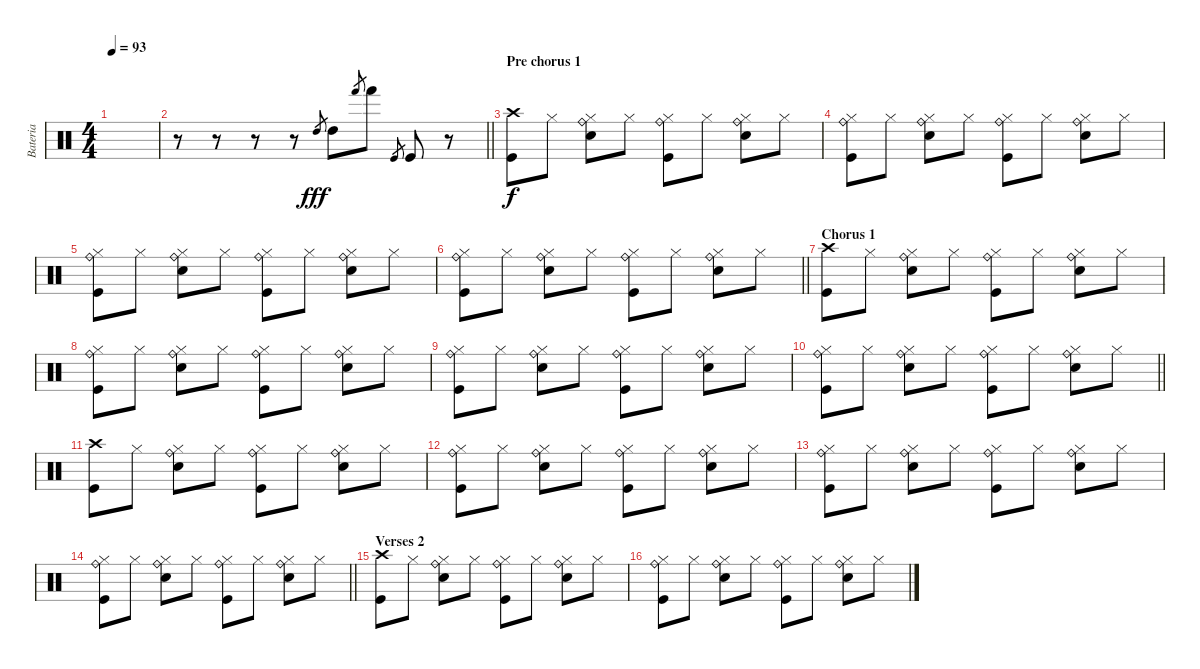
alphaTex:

\track ("Bateria" "Bateria") {instrument percussion}
\staff {score}
\articulation defaults
\ts (4 4)
\tempo 93
\clef neutral
\ks c
|
\barLineRight lightlight
r.8 r.8 r.8 r.8 "High Tom (hit)".8{gr dy fff} "High Tom (hit)".8 "Hand (hit)".8{gr} "Hand (hit)".8 "Kick (hit)".8{gr} "Kick (hit)".8 r.8 |
\section ("" "Pre chorus 1")
("Crash high (hit)" "Kick (hit)").8{dy f} "Hi-Hat (closed)".8 ("Hi-Hat (closed)" "Snare (hit) 2" "Ride (bell)").8 "Hi-Hat (closed)".8 ("Kick (hit)" "Hi-Hat (closed)" "Ride (bell)").8 "Hi-Hat (closed)".8 ("Hi-Hat (closed)" "Snare (hit) 2" "Ride (bell)").8 "Hi-Hat (closed)".8 |
("Hi-Hat (closed)" "Kick (hit)" "Ride (bell)").8 "Hi-Hat (closed)".8 ("Hi-Hat (closed)" "Snare (hit) 2" "Ride (bell)").8 "Hi-Hat (closed)".8 ("Kick (hit)" "Hi-Hat (closed)" "Ride (bell)").8 "Hi-Hat (closed)".8 ("Hi-Hat (closed)" "Snare (hit) 2" "Ride (bell)").8 "Hi-Hat (closed)".8 |
("Hi-Hat (closed)" "Kick (hit)" "Ride (bell)").8 "Hi-Hat (closed)".8 ("Hi-Hat (closed)" "Snare (hit) 2" "Ride (bell)").8 "Hi-Hat (closed)".8 ("Kick (hit)" "Hi-Hat (closed)" "Ride (bell)").8 "Hi-Hat (closed)".8 ("Hi-Hat (closed)" "Snare (hit) 2" "Ride (bell)").8 "Hi-Hat (closed)".8 |
\barLineRight lightlight
("Hi-Hat (closed)" "Kick (hit)" "Ride (bell)").8 "Hi-Hat (closed)".8 ("Hi-Hat (closed)" "Snare (hit) 2" "Ride (bell)").8 "Hi-Hat (closed)".8 ("Kick (hit)" "Hi-Hat (closed)" "Ride (bell)").8 "Hi-Hat (closed)".8 ("Hi-Hat (closed)" "Snare (hit) 2" "Ride (bell)").8 "Hi-Hat (closed)".8 |
\section ("" "Chorus 1")
("Crash high (hit)" "Kick (hit)").8 "Hi-Hat (closed)".8 ("Hi-Hat (closed)" "Snare (hit) 2" "Ride (bell)").8 "Hi-Hat (closed)".8 ("Kick (hit)" "Hi-Hat (closed)" "Ride (bell)").8 "Hi-Hat (closed)".8 ("Hi-Hat (closed)" "Snare (hit) 2" "Ride (bell)").8 "Hi-Hat (closed)".8 |
("Hi-Hat (closed)" "Kick (hit)" "Ride (bell)").8 "Hi-Hat (closed)".8 ("Hi-Hat (closed)" "Snare (hit) 2" "Ride (bell)").8 "Hi-Hat (closed)".8 ("Kick (hit)" "Hi-Hat (closed)" "Ride (bell)").8 "Hi-Hat (closed)".8 ("Hi-Hat (closed)" "Snare (hit) 2" "Ride (bell)").8 "Hi-Hat (closed)".8 |
("Hi-Hat (closed)" "Kick (hit)" "Ride (bell)").8 "Hi-Hat (closed)".8 ("Hi-Hat (closed)" "Snare (hit) 2" "Ride (bell)").8 "Hi-Hat (closed)".8 ("Kick (hit)" "Hi-Hat (closed)" "Ride (bell)").8 "Hi-Hat (closed)".8 ("Hi-Hat (closed)" "Snare (hit) 2" "Ride (bell)").8 "Hi-Hat (closed)".8 |
\barLineRight lightlight
("Hi-Hat (closed)" "Kick (hit)" "Ride (bell)").8 "Hi-Hat (closed)".8 ("Hi-Hat (closed)" "Snare (hit) 2" "Ride (bell)").8 "Hi-Hat (closed)".8 ("Kick (hit)" "Hi-Hat (closed)" "Ride (bell)").8 "Hi-Hat (closed)".8 ("Hi-Hat (closed)" "Snare (hit) 2" "Ride (bell)").8 "Hi-Hat (closed)".8 |
("Crash high (hit)" "Kick (hit)").8 "Hi-Hat (closed)".8 ("Hi-Hat (closed)" "Snare (hit) 2" "Ride (bell)").8 "Hi-Hat (closed)".8 ("Kick (hit)" "Hi-Hat (closed)" "Ride (bell)").8 "Hi-Hat (closed)".8 ("Hi-Hat (closed)" "Snare (hit) 2" "Ride (bell)").8 "Hi-Hat (closed)".8 |
("Hi-Hat (closed)" "Kick (hit)" "Ride (bell)").8 "Hi-Hat (closed)".8 ("Hi-Hat (closed)" "Snare (hit) 2" "Ride (bell)").8 "Hi-Hat (closed)".8 ("Kick (hit)" "Hi-Hat (closed)" "Ride (bell)").8 "Hi-Hat (closed)".8 ("Hi-Hat (closed)" "Snare (hit) 2" "Ride (bell)").8 "Hi-Hat (closed)".8 |
("Hi-Hat (closed)" "Kick (hit)" "Ride (bell)").8 "Hi-Hat (closed)".8 ("Hi-Hat (closed)" "Snare (hit) 2" "Ride (bell)").8 "Hi-Hat (closed)".8 ("Kick (hit)" "Hi-Hat (closed)" "Ride (bell)").8 "Hi-Hat (closed)".8 ("Hi-Hat (closed)" "Snare (hit) 2" "Ride (bell)").8 "Hi-Hat (closed)".8 |
\barLineRight lightlight
("Hi-Hat (closed)" "Kick (hit)" "Ride (bell)").8 "Hi-Hat (closed)".8 ("Hi-Hat (closed)" "Snare (hit) 2" "Ride (bell)").8 "Hi-Hat (closed)".8 ("Kick (hit)" "Hi-Hat (closed)" "Ride (bell)").8 "Hi-Hat (closed)".8 ("Hi-Hat (closed)" "Snare (hit) 2" "Ride (bell)").8 "Hi-Hat (closed)".8 |
\section ("" "Verses 2")
("Crash high (hit)" "Kick (hit)").8 "Hi-Hat (closed)".8 ("Hi-Hat (closed)" "Snare (hit) 2" "Ride (bell)").8 "Hi-Hat (closed)".8 ("Kick (hit)" "Hi-Hat (closed)" "Ride (bell)").8 "Hi-Hat (closed)".8 ("Hi-Hat (closed)" "Snare (hit) 2" "Ride (bell)").8 "Hi-Hat (closed)".8 |
("Hi-Hat (closed)" "Kick (hit)" "Ride (bell)").8 "Hi-Hat (closed)".8 ("Hi-Hat (closed)" "Snare (hit) 2" "Ride (bell)").8 "Hi-Hat (closed)".8 ("Kick (hit)" "Hi-Hat (closed)" "Ride (bell)").8 "Hi-Hat (closed)".8 ("Hi-Hat (closed)" "Snare (hit) 2" "Ride (bell)").8 "Hi-Hat (closed)".8
